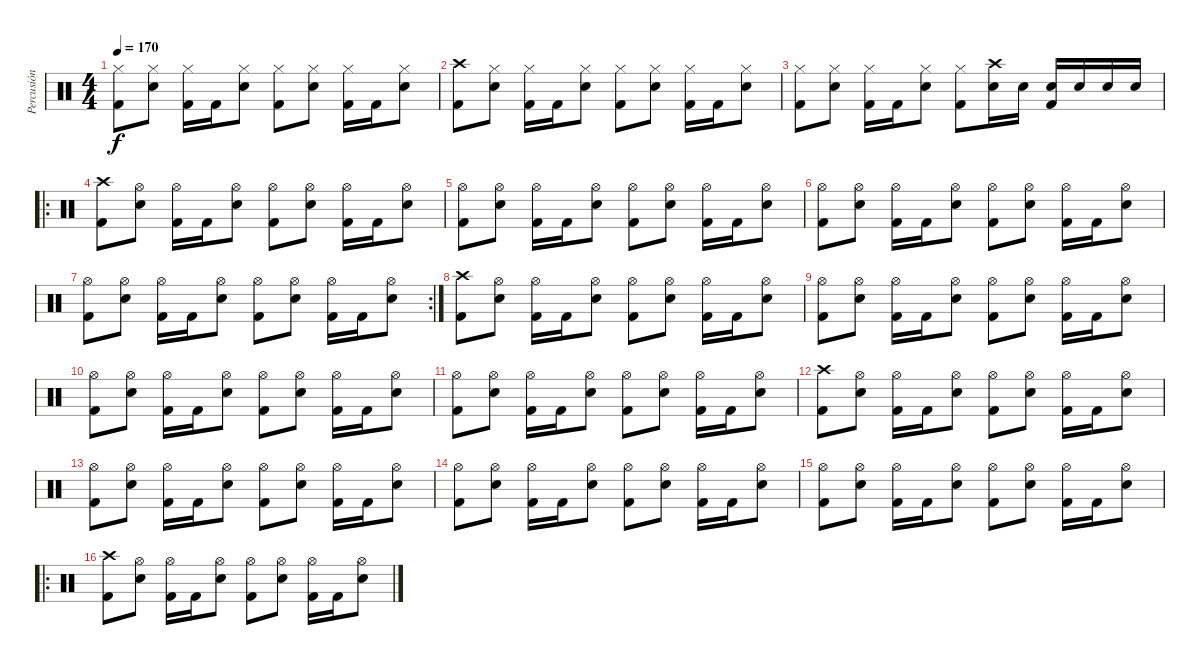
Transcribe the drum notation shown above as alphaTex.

\track ("Percusión" "Percusión") {instrument percussion}
\staff {score}
\articulation defaults
\ts (4 4)
\tempo 170
\clef neutral
\ks c
("Kick (hit) 2" "Hi-Hat (closed)").8{dy f} ("Snare (hit) 2" "Hi-Hat (closed)").8 ("Kick (hit) 2" "Hi-Hat (closed)").16 "Kick (hit) 2".16 ("Snare (hit) 2" "Hi-Hat (closed)").8 ("Kick (hit) 2" "Hi-Hat (closed)").8 ("Snare (hit) 2" "Hi-Hat (closed)").8 ("Kick (hit) 2" "Hi-Hat (closed)").16 "Kick (hit) 2".16 ("Snare (hit) 2" "Hi-Hat (closed)").8 |
("Kick (hit) 2" "Crash high (hit)").8 ("Snare (hit) 2" "Hi-Hat (closed)").8 ("Kick (hit) 2" "Hi-Hat (closed)").16 "Kick (hit) 2".16 ("Snare (hit) 2" "Hi-Hat (closed)").8 ("Kick (hit) 2" "Hi-Hat (closed)").8 ("Snare (hit) 2" "Hi-Hat (closed)").8 ("Kick (hit) 2" "Hi-Hat (closed)").16 "Kick (hit) 2".16 ("Snare (hit) 2" "Hi-Hat (closed)").8 |
("Kick (hit) 2" "Hi-Hat (closed)").8 ("Snare (hit) 2" "Hi-Hat (closed)").8 ("Kick (hit) 2" "Hi-Hat (closed)").16 "Kick (hit) 2".16 ("Snare (hit) 2" "Hi-Hat (closed)").8 ("Kick (hit) 2" "Hi-Hat (closed)").8 ("Snare (hit) 2" "Crash high (hit)").16 "Snare (hit) 2".16 ("Kick (hit) 2" "Snare (hit) 2").16 "Snare (hit) 2".16 "Snare (hit) 2".16 "Snare (hit) 2".16 |
\ro
("Kick (hit) 2" "Crash high (hit)").8 ("Snare (hit) 2" "Hi-Hat (open)").8 ("Kick (hit) 2" "Hi-Hat (open)").16 "Kick (hit) 2".16 ("Snare (hit) 2" "Hi-Hat (open)").8 ("Kick (hit) 2" "Hi-Hat (open)").8 ("Snare (hit) 2" "Hi-Hat (open)").8 ("Kick (hit) 2" "Hi-Hat (open)").16 "Kick (hit) 2".16 ("Snare (hit) 2" "Hi-Hat (open)").8 |
("Kick (hit) 2" "Hi-Hat (open)").8 ("Snare (hit) 2" "Hi-Hat (open)").8 ("Kick (hit) 2" "Hi-Hat (open)").16 "Kick (hit) 2".16 ("Snare (hit) 2" "Hi-Hat (open)").8 ("Kick (hit) 2" "Hi-Hat (open)").8 ("Snare (hit) 2" "Hi-Hat (open)").8 ("Kick (hit) 2" "Hi-Hat (open)").16 "Kick (hit) 2".16 ("Snare (hit) 2" "Hi-Hat (open)").8 |
("Kick (hit) 2" "Hi-Hat (open)").8 ("Snare (hit) 2" "Hi-Hat (open)").8 ("Kick (hit) 2" "Hi-Hat (open)").16 "Kick (hit) 2".16 ("Snare (hit) 2" "Hi-Hat (open)").8 ("Kick (hit) 2" "Hi-Hat (open)").8 ("Snare (hit) 2" "Hi-Hat (open)").8 ("Kick (hit) 2" "Hi-Hat (open)").16 "Kick (hit) 2".16 ("Snare (hit) 2" "Hi-Hat (open)").8 |
\rc 2
("Kick (hit) 2" "Hi-Hat (open)").8 ("Snare (hit) 2" "Hi-Hat (open)").8 ("Kick (hit) 2" "Hi-Hat (open)").16 "Kick (hit) 2".16 ("Snare (hit) 2" "Hi-Hat (open)").8 ("Kick (hit) 2" "Hi-Hat (open)").8 ("Snare (hit) 2" "Hi-Hat (open)").8 ("Kick (hit) 2" "Hi-Hat (open)").16 "Kick (hit) 2".16 ("Snare (hit) 2" "Hi-Hat (open)").8 |
("Kick (hit) 2" "Crash high (hit)").8 ("Snare (hit) 2" "Hi-Hat (open)").8 ("Kick (hit) 2" "Hi-Hat (open)").16 "Kick (hit) 2".16 ("Snare (hit) 2" "Hi-Hat (open)").8 ("Kick (hit) 2" "Hi-Hat (open)").8 ("Snare (hit) 2" "Hi-Hat (open)").8 ("Kick (hit) 2" "Hi-Hat (open)").16 "Kick (hit) 2".16 ("Snare (hit) 2" "Hi-Hat (open)").8 |
("Kick (hit) 2" "Hi-Hat (open)").8 ("Snare (hit) 2" "Hi-Hat (open)").8 ("Kick (hit) 2" "Hi-Hat (open)").16 "Kick (hit) 2".16 ("Snare (hit) 2" "Hi-Hat (open)").8 ("Kick (hit) 2" "Hi-Hat (open)").8 ("Snare (hit) 2" "Hi-Hat (open)").8 ("Kick (hit) 2" "Hi-Hat (open)").16 "Kick (hit) 2".16 ("Snare (hit) 2" "Hi-Hat (open)").8 |
("Kick (hit) 2" "Hi-Hat (open)").8 ("Snare (hit) 2" "Hi-Hat (open)").8 ("Kick (hit) 2" "Hi-Hat (open)").16 "Kick (hit) 2".16 ("Snare (hit) 2" "Hi-Hat (open)").8 ("Kick (hit) 2" "Hi-Hat (open)").8 ("Snare (hit) 2" "Hi-Hat (open)").8 ("Kick (hit) 2" "Hi-Hat (open)").16 "Kick (hit) 2".16 ("Snare (hit) 2" "Hi-Hat (open)").8 |
("Kick (hit) 2" "Hi-Hat (open)").8 ("Snare (hit) 2" "Hi-Hat (open)").8 ("Kick (hit) 2" "Hi-Hat (open)").16 "Kick (hit) 2".16 ("Snare (hit) 2" "Hi-Hat (open)").8 ("Kick (hit) 2" "Hi-Hat (open)").8 ("Snare (hit) 2" "Hi-Hat (open)").8 ("Kick (hit) 2" "Hi-Hat (open)").16 "Kick (hit) 2".16 ("Snare (hit) 2" "Hi-Hat (open)").8 |
("Kick (hit) 2" "Crash high (hit)").8 ("Snare (hit) 2" "Hi-Hat (open)").8 ("Kick (hit) 2" "Hi-Hat (open)").16 "Kick (hit) 2".16 ("Snare (hit) 2" "Hi-Hat (open)").8 ("Kick (hit) 2" "Hi-Hat (open)").8 ("Snare (hit) 2" "Hi-Hat (open)").8 ("Kick (hit) 2" "Hi-Hat (open)").16 "Kick (hit) 2".16 ("Snare (hit) 2" "Hi-Hat (open)").8 |
("Kick (hit) 2" "Hi-Hat (open)").8 ("Snare (hit) 2" "Hi-Hat (open)").8 ("Kick (hit) 2" "Hi-Hat (open)").16 "Kick (hit) 2".16 ("Snare (hit) 2" "Hi-Hat (open)").8 ("Kick (hit) 2" "Hi-Hat (open)").8 ("Snare (hit) 2" "Hi-Hat (open)").8 ("Kick (hit) 2" "Hi-Hat (open)").16 "Kick (hit) 2".16 ("Snare (hit) 2" "Hi-Hat (open)").8 |
("Kick (hit) 2" "Hi-Hat (open)").8 ("Snare (hit) 2" "Hi-Hat (open)").8 ("Kick (hit) 2" "Hi-Hat (open)").16 "Kick (hit) 2".16 ("Snare (hit) 2" "Hi-Hat (open)").8 ("Kick (hit) 2" "Hi-Hat (open)").8 ("Snare (hit) 2" "Hi-Hat (open)").8 ("Kick (hit) 2" "Hi-Hat (open)").16 "Kick (hit) 2".16 ("Snare (hit) 2" "Hi-Hat (open)").8 |
("Kick (hit) 2" "Hi-Hat (open)").8 ("Snare (hit) 2" "Hi-Hat (open)").8 ("Kick (hit) 2" "Hi-Hat (open)").16 "Kick (hit) 2".16 ("Snare (hit) 2" "Hi-Hat (open)").8 ("Kick (hit) 2" "Hi-Hat (open)").8 ("Snare (hit) 2" "Hi-Hat (open)").8 ("Kick (hit) 2" "Hi-Hat (open)").16 "Kick (hit) 2".16 ("Snare (hit) 2" "Hi-Hat (open)").8 |
\ro
("Kick (hit) 2" "Crash high (hit)").8 ("Snare (hit) 2" "Hi-Hat (open)").8 ("Kick (hit) 2" "Hi-Hat (open)").16 "Kick (hit) 2".16 ("Snare (hit) 2" "Hi-Hat (open)").8 ("Kick (hit) 2" "Hi-Hat (open)").8 ("Snare (hit) 2" "Hi-Hat (open)").8 ("Kick (hit) 2" "Hi-Hat (open)").16 "Kick (hit) 2".16 ("Snare (hit) 2" "Hi-Hat (open)").8
